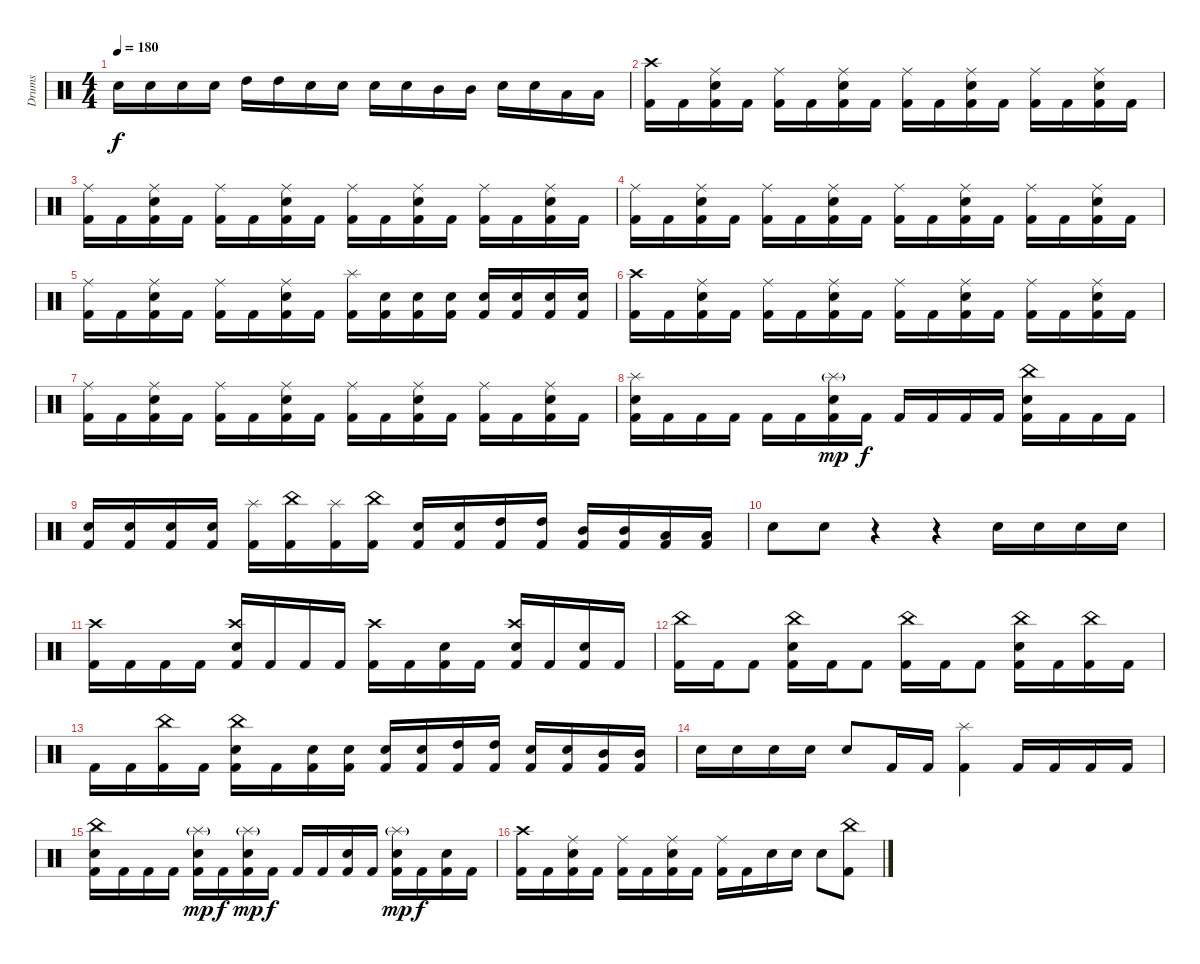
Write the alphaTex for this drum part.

\track ("Drums" "Drums") {instrument percussion}
\staff {score}
\articulation defaults
\ts (4 4)
\tempo 180
\clef neutral
\ks c "Electric Snare (hit)".16{dy f} "Electric Snare (hit)".16 "Electric Snare (hit)".16 "Electric Snare (hit)".16 "High Tom (hit)".16 "High Tom (hit)".16 "Electric Snare (hit)".16 "Electric Snare (hit)".16 "Electric Snare (hit)".16 "Electric Snare (hit)".16 "Mid Tom (hit)".16 "Mid Tom (hit)".16 "Electric Snare (hit)".16 "Electric Snare (hit)".16 "Low Tom (hit)".16 "Low Tom (hit)".16
|
("Crash high (hit)" "Kick (hit) 2").16 "Kick (hit) 2".16 ("Ride (middle)" "Electric Snare (hit)" "Kick (hit) 2").16 "Kick (hit) 2".16 ("Ride (middle)" "Kick (hit) 2").16 "Kick (hit) 2".16 ("Ride (middle)" "Electric Snare (hit)" "Kick (hit) 2").16 "Kick (hit) 2".16 ("Ride (middle)" "Kick (hit) 2").16 "Kick (hit) 2".16 ("Ride (middle)" "Electric Snare (hit)" "Kick (hit) 2").16 "Kick (hit) 2".16 ("Ride (middle)" "Kick (hit) 2").16 "Kick (hit) 2".16 ("Ride (middle)" "Electric Snare (hit)" "Kick (hit) 2").16 "Kick (hit) 2".16 |
("Ride (middle)" "Kick (hit) 2").16 "Kick (hit) 2".16 ("Ride (middle)" "Electric Snare (hit)" "Kick (hit) 2").16 "Kick (hit) 2".16 ("Ride (middle)" "Kick (hit) 2").16 "Kick (hit) 2".16 ("Ride (middle)" "Electric Snare (hit)" "Kick (hit) 2").16 "Kick (hit) 2".16 ("Ride (middle)" "Kick (hit) 2").16 "Kick (hit) 2".16 ("Ride (middle)" "Electric Snare (hit)" "Kick (hit) 2").16 "Kick (hit) 2".16 ("Ride (middle)" "Kick (hit) 2").16 "Kick (hit) 2".16 ("Ride (middle)" "Electric Snare (hit)" "Kick (hit) 2").16 "Kick (hit) 2".16 |
("Ride (middle)" "Kick (hit) 2").16 "Kick (hit) 2".16 ("Ride (middle)" "Electric Snare (hit)" "Kick (hit) 2").16 "Kick (hit) 2".16 ("Ride (middle)" "Kick (hit) 2").16 "Kick (hit) 2".16 ("Ride (middle)" "Electric Snare (hit)" "Kick (hit) 2").16 "Kick (hit) 2".16 ("Ride (middle)" "Kick (hit) 2").16 "Kick (hit) 2".16 ("Ride (middle)" "Electric Snare (hit)" "Kick (hit) 2").16 "Kick (hit) 2".16 ("Ride (middle)" "Kick (hit) 2").16 "Kick (hit) 2".16 ("Ride (middle)" "Electric Snare (hit)" "Kick (hit) 2").16 "Kick (hit) 2".16 |
("Ride (middle)" "Kick (hit) 2").16 "Kick (hit) 2".16 ("Ride (middle)" "Electric Snare (hit)" "Kick (hit) 2").16 "Kick (hit) 2".16 ("Ride (middle)" "Kick (hit) 2").16 "Kick (hit) 2".16 ("Ride (middle)" "Electric Snare (hit)" "Kick (hit) 2").16 "Kick (hit) 2".16 ("Splash (hit)" "Kick (hit) 2").16 ("Electric Snare (hit)" "Kick (hit) 2").16 ("Electric Snare (hit)" "Kick (hit) 2").16 ("Electric Snare (hit)" "Kick (hit) 2").16 ("Electric Snare (hit)" "Kick (hit) 2").16 ("Electric Snare (hit)" "Kick (hit) 2").16 ("Electric Snare (hit)" "Kick (hit) 2").16 ("Electric Snare (hit)" "Kick (hit) 2").16 |
("Crash high (hit)" "Kick (hit) 2").16 "Kick (hit) 2".16 ("Ride (middle)" "Electric Snare (hit)" "Kick (hit) 2").16 "Kick (hit) 2".16 ("Ride (middle)" "Kick (hit) 2").16 "Kick (hit) 2".16 ("Ride (middle)" "Electric Snare (hit)" "Kick (hit) 2").16 "Kick (hit) 2".16 ("Ride (middle)" "Kick (hit) 2").16 "Kick (hit) 2".16 ("Ride (middle)" "Electric Snare (hit)" "Kick (hit) 2").16 "Kick (hit) 2".16 ("Ride (middle)" "Kick (hit) 2").16 "Kick (hit) 2".16 ("Ride (middle)" "Electric Snare (hit)" "Kick (hit) 2").16 "Kick (hit) 2".16 |
("Ride (middle)" "Kick (hit) 2").16 "Kick (hit) 2".16 ("Ride (middle)" "Electric Snare (hit)" "Kick (hit) 2").16 "Kick (hit) 2".16 ("Ride (middle)" "Kick (hit) 2").16 "Kick (hit) 2".16 ("Ride (middle)" "Electric Snare (hit)" "Kick (hit) 2").16 "Kick (hit) 2".16 ("Ride (middle)" "Kick (hit) 2").16 "Kick (hit) 2".16 ("Ride (middle)" "Electric Snare (hit)" "Kick (hit) 2").16 "Kick (hit) 2".16 ("Ride (middle)" "Kick (hit) 2").16 "Kick (hit) 2".16 ("Ride (middle)" "Electric Snare (hit)" "Kick (hit) 2").16 "Kick (hit) 2".16 |
("Splash (hit)" "Electric Snare (hit)" "Kick (hit) 2").16 "Kick (hit) 2".16 "Kick (hit) 2".16 "Kick (hit) 2".16 "Kick (hit) 2".16 "Kick (hit) 2".16 ("Splash (hit)"{g} "Electric Snare (hit)" "Kick (hit) 2").16{dy mp} "Kick (hit) 2".16{dy f} "Kick (hit) 2".16 "Kick (hit) 2".16 "Kick (hit) 2".16 "Kick (hit) 2".16 ("China (hit)" "Electric Snare (hit)" "Kick (hit) 2").16 "Kick (hit) 2".16 "Kick (hit) 2".16 "Kick (hit) 2".16 |
("Electric Snare (hit)" "Kick (hit) 2").16 ("Electric Snare (hit)" "Kick (hit) 2").16 ("Electric Snare (hit)" "Kick (hit) 2").16 ("Electric Snare (hit)" "Kick (hit) 2").16 ("Splash (hit)" "Kick (hit) 2").16 ("China (hit)" "Kick (hit) 2").16 ("Splash (hit)" "Kick (hit) 2").16 ("China (hit)" "Kick (hit) 2").16 ("Electric Snare (hit)" "Kick (hit) 2").16 ("Electric Snare (hit)" "Kick (hit) 2").16 ("High Tom (hit)" "Kick (hit) 2").16 ("High Tom (hit)" "Kick (hit) 2").16 ("Mid Tom (hit)" "Kick (hit) 2").16 ("Mid Tom (hit)" "Kick (hit) 2").16 ("Low Tom (hit)" "Kick (hit) 2").16 ("Low Tom (hit)" "Kick (hit) 2").16 |
"Electric Snare (hit)".8 "Electric Snare (hit)".8 r.4 r.4 "Electric Snare (hit)".16 "Electric Snare (hit)".16 "Electric Snare (hit)".16 "Electric Snare (hit)".16 |
("Crash high (hit)" "Kick (hit) 2").16 "Kick (hit) 2".16 "Kick (hit) 2".16 "Kick (hit) 2".16 ("Crash high (hit)" "Electric Snare (hit)" "Kick (hit) 2").16 "Kick (hit) 2".16 "Kick (hit) 2".16 "Kick (hit) 2".16 ("Crash high (hit)" "Kick (hit) 2").16 "Kick (hit) 2".16 ("Electric Snare (hit)" "Kick (hit) 2").16 "Kick (hit) 2".16 ("Crash high (hit)" "Electric Snare (hit)" "Kick (hit) 2").16 "Kick (hit) 2".16 ("Electric Snare (hit)" "Kick (hit) 2").16 "Kick (hit) 2".16 |
("China (hit)" "Kick (hit) 2").16 "Kick (hit) 2".16 "Kick (hit) 2".8 ("China (hit)" "Electric Snare (hit)" "Kick (hit) 2").16 "Kick (hit) 2".16 "Kick (hit) 2".8 ("China (hit)" "Kick (hit) 2").16 "Kick (hit) 2".16 "Kick (hit) 2".8 ("China (hit)" "Electric Snare (hit)" "Kick (hit) 2").16 "Kick (hit) 2".16 ("China (hit)" "Kick (hit) 2").16 "Kick (hit) 2".16 |
"Kick (hit) 2".16 "Kick (hit) 2".16 ("China (hit)" "Kick (hit) 2").16 "Kick (hit) 2".16 ("China (hit)" "Electric Snare (hit)" "Kick (hit) 2").16 "Kick (hit) 2".16 ("Electric Snare (hit)" "Kick (hit) 2").16 ("Electric Snare (hit)" "Kick (hit) 2").16 ("Electric Snare (hit)" "Kick (hit) 2").16 ("Electric Snare (hit)" "Kick (hit) 2").16 ("High Tom (hit)" "Kick (hit) 2").16 ("High Tom (hit)" "Kick (hit) 2").16 ("Electric Snare (hit)" "Kick (hit) 2").16 ("Electric Snare (hit)" "Kick (hit) 2").16 ("Mid Tom (hit)" "Kick (hit) 2").16 ("Mid Tom (hit)" "Kick (hit) 2").16 |
"Electric Snare (hit)".16 "Electric Snare (hit)".16 "Electric Snare (hit)".16 "Electric Snare (hit)".16 "Electric Snare (hit)".8 "Kick (hit) 2".16 "Kick (hit) 2".16 ("Splash (hit)" "Kick (hit) 2").4 "Kick (hit) 2".16 "Kick (hit) 2".16 "Kick (hit) 2".16 "Kick (hit) 2".16 |
("China (hit)" "Electric Snare (hit)" "Kick (hit) 2").16 "Kick (hit) 2".16 "Kick (hit) 2".16 "Kick (hit) 2".16 ("Splash (hit)"{g} "Electric Snare (hit)" "Kick (hit) 2").16{dy mp} "Kick (hit) 2".16{dy f} ("Splash (hit)"{g} "Electric Snare (hit)" "Kick (hit) 2").16{dy mp} "Kick (hit) 2".16{dy f} "Kick (hit) 2".16 "Kick (hit) 2".16 ("Electric Snare (hit)" "Kick (hit) 2").16 "Kick (hit) 2".16 ("Splash (hit)"{g} "Electric Snare (hit)" "Kick (hit) 2").16{dy mp} "Kick (hit) 2".16{dy f} ("Electric Snare (hit)" "Kick (hit) 2").16 "Kick (hit) 2".16 |
("Crash high (hit)" "Kick (hit) 2").16 "Kick (hit) 2".16 ("Ride (middle)" "Electric Snare (hit)" "Kick (hit) 2").16 "Kick (hit) 2".16 ("Ride (middle)" "Kick (hit) 2").16 "Kick (hit) 2".16 ("Ride (middle)" "Electric Snare (hit)" "Kick (hit) 2").16 "Kick (hit) 2".16 ("Ride (middle)" "Kick (hit) 2").16 "Kick (hit) 2".16 "Electric Snare (hit)".16 "Electric Snare (hit)".16 "Electric Snare (hit)".8 ("China (hit)" "Kick (hit) 2").8
